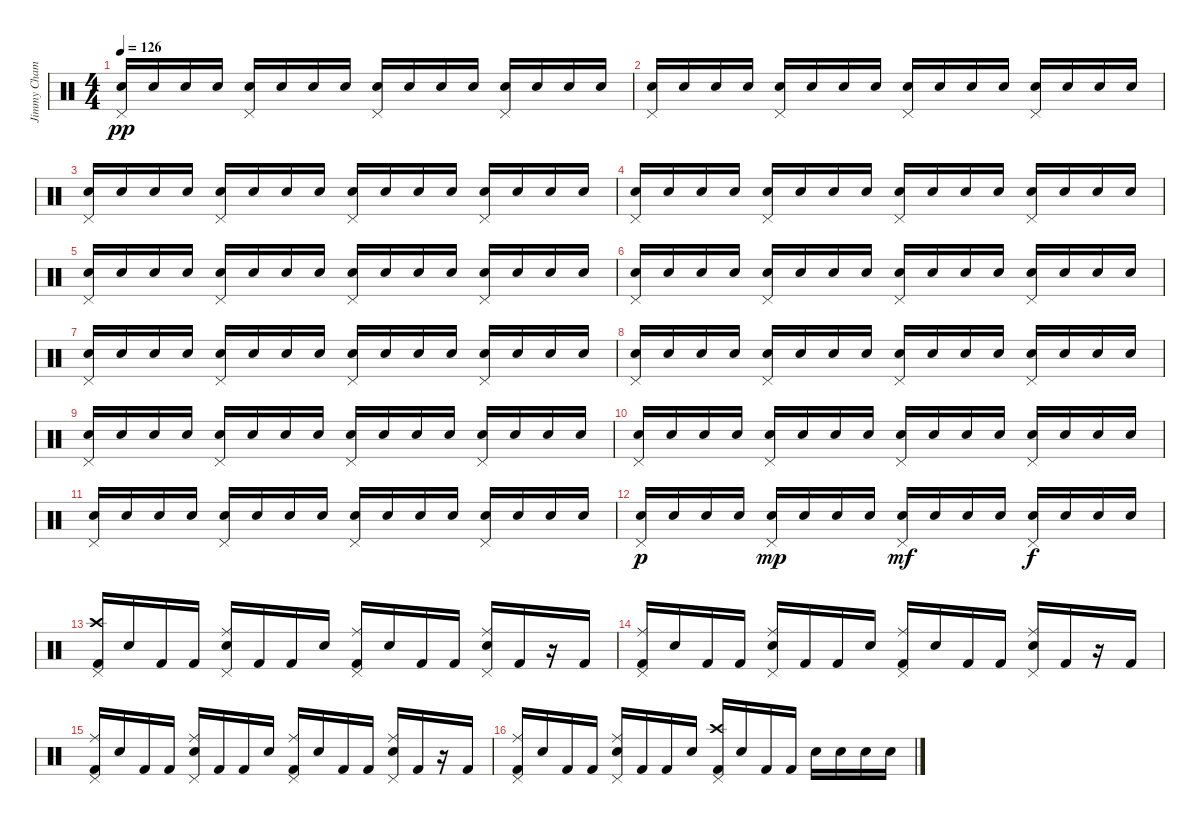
\track ("Jimmy Chamberlain" "Jimmy Cham") {instrument percussion}
\staff {score}
\articulation defaults
\ts (4 4)
\tempo 126
\clef neutral
\ks c
("Pedal Hi-Hat (hit)" "Snare (hit) 2").16{dy pp} "Snare (hit) 2".16 "Snare (hit) 2".16 "Snare (hit) 2".16 ("Pedal Hi-Hat (hit)" "Snare (hit) 2").16 "Snare (hit) 2".16 "Snare (hit) 2".16 "Snare (hit) 2".16 ("Pedal Hi-Hat (hit)" "Snare (hit) 2").16 "Snare (hit) 2".16 "Snare (hit) 2".16 "Snare (hit) 2".16 ("Pedal Hi-Hat (hit)" "Snare (hit) 2").16 "Snare (hit) 2".16 "Snare (hit) 2".16 "Snare (hit) 2".16 |
("Pedal Hi-Hat (hit)" "Snare (hit) 2").16 "Snare (hit) 2".16 "Snare (hit) 2".16 "Snare (hit) 2".16 ("Pedal Hi-Hat (hit)" "Snare (hit) 2").16 "Snare (hit) 2".16 "Snare (hit) 2".16 "Snare (hit) 2".16 ("Pedal Hi-Hat (hit)" "Snare (hit) 2").16 "Snare (hit) 2".16 "Snare (hit) 2".16 "Snare (hit) 2".16 ("Pedal Hi-Hat (hit)" "Snare (hit) 2").16 "Snare (hit) 2".16 "Snare (hit) 2".16 "Snare (hit) 2".16 |
("Pedal Hi-Hat (hit)" "Snare (hit) 2").16 "Snare (hit) 2".16 "Snare (hit) 2".16 "Snare (hit) 2".16 ("Pedal Hi-Hat (hit)" "Snare (hit) 2").16 "Snare (hit) 2".16 "Snare (hit) 2".16 "Snare (hit) 2".16 ("Pedal Hi-Hat (hit)" "Snare (hit) 2").16 "Snare (hit) 2".16 "Snare (hit) 2".16 "Snare (hit) 2".16 ("Pedal Hi-Hat (hit)" "Snare (hit) 2").16 "Snare (hit) 2".16 "Snare (hit) 2".16 "Snare (hit) 2".16 |
("Pedal Hi-Hat (hit)" "Snare (hit) 2").16 "Snare (hit) 2".16 "Snare (hit) 2".16 "Snare (hit) 2".16 ("Pedal Hi-Hat (hit)" "Snare (hit) 2").16 "Snare (hit) 2".16 "Snare (hit) 2".16 "Snare (hit) 2".16 ("Pedal Hi-Hat (hit)" "Snare (hit) 2").16 "Snare (hit) 2".16 "Snare (hit) 2".16 "Snare (hit) 2".16 ("Pedal Hi-Hat (hit)" "Snare (hit) 2").16 "Snare (hit) 2".16 "Snare (hit) 2".16 "Snare (hit) 2".16 |
("Pedal Hi-Hat (hit)" "Snare (hit) 2").16 "Snare (hit) 2".16 "Snare (hit) 2".16 "Snare (hit) 2".16 ("Pedal Hi-Hat (hit)" "Snare (hit) 2").16 "Snare (hit) 2".16 "Snare (hit) 2".16 "Snare (hit) 2".16 ("Pedal Hi-Hat (hit)" "Snare (hit) 2").16 "Snare (hit) 2".16 "Snare (hit) 2".16 "Snare (hit) 2".16 ("Pedal Hi-Hat (hit)" "Snare (hit) 2").16 "Snare (hit) 2".16 "Snare (hit) 2".16 "Snare (hit) 2".16 |
("Pedal Hi-Hat (hit)" "Snare (hit) 2").16 "Snare (hit) 2".16 "Snare (hit) 2".16 "Snare (hit) 2".16 ("Pedal Hi-Hat (hit)" "Snare (hit) 2").16 "Snare (hit) 2".16 "Snare (hit) 2".16 "Snare (hit) 2".16 ("Pedal Hi-Hat (hit)" "Snare (hit) 2").16 "Snare (hit) 2".16 "Snare (hit) 2".16 "Snare (hit) 2".16 ("Pedal Hi-Hat (hit)" "Snare (hit) 2").16 "Snare (hit) 2".16 "Snare (hit) 2".16 "Snare (hit) 2".16 |
("Pedal Hi-Hat (hit)" "Snare (hit) 2").16 "Snare (hit) 2".16 "Snare (hit) 2".16 "Snare (hit) 2".16 ("Pedal Hi-Hat (hit)" "Snare (hit) 2").16 "Snare (hit) 2".16 "Snare (hit) 2".16 "Snare (hit) 2".16 ("Pedal Hi-Hat (hit)" "Snare (hit) 2").16 "Snare (hit) 2".16 "Snare (hit) 2".16 "Snare (hit) 2".16 ("Pedal Hi-Hat (hit)" "Snare (hit) 2").16 "Snare (hit) 2".16 "Snare (hit) 2".16 "Snare (hit) 2".16 |
("Pedal Hi-Hat (hit)" "Snare (hit) 2").16 "Snare (hit) 2".16 "Snare (hit) 2".16 "Snare (hit) 2".16 ("Pedal Hi-Hat (hit)" "Snare (hit) 2").16 "Snare (hit) 2".16 "Snare (hit) 2".16 "Snare (hit) 2".16 ("Pedal Hi-Hat (hit)" "Snare (hit) 2").16 "Snare (hit) 2".16 "Snare (hit) 2".16 "Snare (hit) 2".16 ("Pedal Hi-Hat (hit)" "Snare (hit) 2").16 "Snare (hit) 2".16 "Snare (hit) 2".16 "Snare (hit) 2".16 |
("Pedal Hi-Hat (hit)" "Snare (hit) 2").16 "Snare (hit) 2".16 "Snare (hit) 2".16 "Snare (hit) 2".16 ("Pedal Hi-Hat (hit)" "Snare (hit) 2").16 "Snare (hit) 2".16 "Snare (hit) 2".16 "Snare (hit) 2".16 ("Pedal Hi-Hat (hit)" "Snare (hit) 2").16 "Snare (hit) 2".16 "Snare (hit) 2".16 "Snare (hit) 2".16 ("Pedal Hi-Hat (hit)" "Snare (hit) 2").16 "Snare (hit) 2".16 "Snare (hit) 2".16 "Snare (hit) 2".16 |
("Pedal Hi-Hat (hit)" "Snare (hit) 2").16 "Snare (hit) 2".16 "Snare (hit) 2".16 "Snare (hit) 2".16 ("Pedal Hi-Hat (hit)" "Snare (hit) 2").16 "Snare (hit) 2".16 "Snare (hit) 2".16 "Snare (hit) 2".16 ("Pedal Hi-Hat (hit)" "Snare (hit) 2").16 "Snare (hit) 2".16 "Snare (hit) 2".16 "Snare (hit) 2".16 ("Pedal Hi-Hat (hit)" "Snare (hit) 2").16 "Snare (hit) 2".16 "Snare (hit) 2".16 "Snare (hit) 2".16 |
("Pedal Hi-Hat (hit)" "Snare (hit) 2").16 "Snare (hit) 2".16 "Snare (hit) 2".16 "Snare (hit) 2".16 ("Pedal Hi-Hat (hit)" "Snare (hit) 2").16 "Snare (hit) 2".16 "Snare (hit) 2".16 "Snare (hit) 2".16 ("Pedal Hi-Hat (hit)" "Snare (hit) 2").16 "Snare (hit) 2".16 "Snare (hit) 2".16 "Snare (hit) 2".16 ("Pedal Hi-Hat (hit)" "Snare (hit) 2").16 "Snare (hit) 2".16 "Snare (hit) 2".16 "Snare (hit) 2".16 |
("Pedal Hi-Hat (hit)" "Snare (hit) 2").16{dy p} "Snare (hit) 2".16 "Snare (hit) 2".16 "Snare (hit) 2".16 ("Pedal Hi-Hat (hit)" "Snare (hit) 2").16{dy mp} "Snare (hit) 2".16 "Snare (hit) 2".16 "Snare (hit) 2".16 ("Pedal Hi-Hat (hit)" "Snare (hit) 2").16{dy mf} "Snare (hit) 2".16 "Snare (hit) 2".16 "Snare (hit) 2".16 ("Pedal Hi-Hat (hit)" "Snare (hit) 2").16{dy f} "Snare (hit) 2".16 "Snare (hit) 2".16 "Snare (hit) 2".16 |
("Crash high (hit)" "Pedal Hi-Hat (hit)" "Kick (hit) 2").16 "Snare (hit) 2".16 "Kick (hit) 2".16 "Kick (hit) 2".16 ("Ride (middle)" "Pedal Hi-Hat (hit)" "Snare (hit) 2").16 "Kick (hit) 2".16 "Kick (hit) 2".16 "Snare (hit) 2".16 ("Ride (middle)" "Pedal Hi-Hat (hit)" "Kick (hit) 2").16 "Snare (hit) 2".16 "Kick (hit) 2".16 "Kick (hit) 2".16 ("Ride (middle)" "Pedal Hi-Hat (hit)" "Snare (hit) 2").16 "Kick (hit) 2".16 r.16 "Kick (hit) 2".16 |
("Ride (middle)" "Pedal Hi-Hat (hit)" "Kick (hit) 2").16 "Snare (hit) 2".16 "Kick (hit) 2".16 "Kick (hit) 2".16 ("Ride (middle)" "Pedal Hi-Hat (hit)" "Snare (hit) 2").16 "Kick (hit) 2".16 "Kick (hit) 2".16 "Snare (hit) 2".16 ("Ride (middle)" "Pedal Hi-Hat (hit)" "Kick (hit) 2").16 "Snare (hit) 2".16 "Kick (hit) 2".16 "Kick (hit) 2".16 ("Ride (middle)" "Pedal Hi-Hat (hit)" "Snare (hit) 2").16 "Kick (hit) 2".16 r.16 "Kick (hit) 2".16 |
("Ride (middle)" "Pedal Hi-Hat (hit)" "Kick (hit) 2").16 "Snare (hit) 2".16 "Kick (hit) 2".16 "Kick (hit) 2".16 ("Ride (middle)" "Pedal Hi-Hat (hit)" "Snare (hit) 2").16 "Kick (hit) 2".16 "Kick (hit) 2".16 "Snare (hit) 2".16 ("Ride (middle)" "Pedal Hi-Hat (hit)" "Kick (hit) 2").16 "Snare (hit) 2".16 "Kick (hit) 2".16 "Kick (hit) 2".16 ("Ride (middle)" "Pedal Hi-Hat (hit)" "Snare (hit) 2").16 "Kick (hit) 2".16 r.16 "Kick (hit) 2".16 |
("Ride (middle)" "Pedal Hi-Hat (hit)" "Kick (hit) 2").16 "Snare (hit) 2".16 "Kick (hit) 2".16 "Kick (hit) 2".16 ("Ride (middle)" "Pedal Hi-Hat (hit)" "Snare (hit) 2").16 "Kick (hit) 2".16 "Kick (hit) 2".16 "Snare (hit) 2".16 ("Crash high (hit)" "Pedal Hi-Hat (hit)" "Kick (hit) 2").16 "Snare (hit) 2".16 "Kick (hit) 2".16 "Kick (hit) 2".16 "Snare (hit) 2".16 "Snare (hit) 2".16 "Snare (hit) 2".16 "Snare (hit) 2".16
